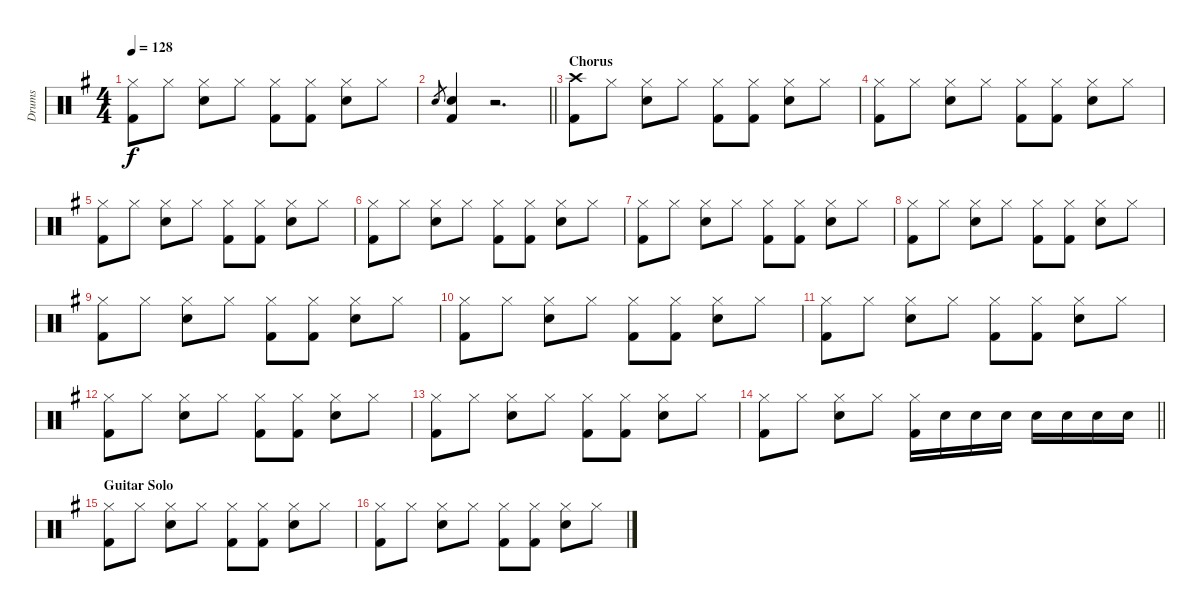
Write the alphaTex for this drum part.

\track ("Drums" "Drums") {instrument percussion}
\staff {score}
\articulation defaults
\ts (4 4)
\tempo 128
\clef neutral
\ks g
("Hi-Hat (closed)" "Kick (hit) 2").8{dy f} "Hi-Hat (closed)".8 ("Hi-Hat (closed)" "Snare (hit) 2").8 "Hi-Hat (closed)".8 ("Hi-Hat (closed)" "Kick (hit) 2").8 ("Hi-Hat (closed)" "Kick (hit) 2").8 ("Hi-Hat (closed)" "Snare (hit) 2").8 "Hi-Hat (closed)".8 |
\barLineRight lightlight "Snare (hit) 2".8{gr}
("Snare (hit) 2" "Kick (hit) 2").4 r.2{d} |
\section ("" "Chorus")
("Crash high (hit)" "Kick (hit) 2").8 "Hi-Hat (closed)".8 ("Hi-Hat (closed)" "Snare (hit) 2").8 "Hi-Hat (closed)".8 ("Hi-Hat (closed)" "Kick (hit) 2").8 ("Hi-Hat (closed)" "Kick (hit) 2").8 ("Hi-Hat (closed)" "Snare (hit) 2").8 "Hi-Hat (closed)".8 |
("Hi-Hat (closed)" "Kick (hit) 2").8 "Hi-Hat (closed)".8 ("Hi-Hat (closed)" "Snare (hit) 2").8 "Hi-Hat (closed)".8 ("Hi-Hat (closed)" "Kick (hit) 2").8 ("Hi-Hat (closed)" "Kick (hit) 2").8 ("Hi-Hat (closed)" "Snare (hit) 2").8 "Hi-Hat (closed)".8 |
("Hi-Hat (closed)" "Kick (hit) 2").8 "Hi-Hat (closed)".8 ("Hi-Hat (closed)" "Snare (hit) 2").8 "Hi-Hat (closed)".8 ("Hi-Hat (closed)" "Kick (hit) 2").8 ("Hi-Hat (closed)" "Kick (hit) 2").8 ("Hi-Hat (closed)" "Snare (hit) 2").8 "Hi-Hat (closed)".8 |
("Hi-Hat (closed)" "Kick (hit) 2").8 "Hi-Hat (closed)".8 ("Hi-Hat (closed)" "Snare (hit) 2").8 "Hi-Hat (closed)".8 ("Hi-Hat (closed)" "Kick (hit) 2").8 ("Hi-Hat (closed)" "Kick (hit) 2").8 ("Hi-Hat (closed)" "Snare (hit) 2").8 "Hi-Hat (closed)".8 |
("Hi-Hat (closed)" "Kick (hit) 2").8 "Hi-Hat (closed)".8 ("Hi-Hat (closed)" "Snare (hit) 2").8 "Hi-Hat (closed)".8 ("Hi-Hat (closed)" "Kick (hit) 2").8 ("Hi-Hat (closed)" "Kick (hit) 2").8 ("Hi-Hat (closed)" "Snare (hit) 2").8 "Hi-Hat (closed)".8 |
("Hi-Hat (closed)" "Kick (hit) 2").8 "Hi-Hat (closed)".8 ("Hi-Hat (closed)" "Snare (hit) 2").8 "Hi-Hat (closed)".8 ("Hi-Hat (closed)" "Kick (hit) 2").8 ("Hi-Hat (closed)" "Kick (hit) 2").8 ("Hi-Hat (closed)" "Snare (hit) 2").8 "Hi-Hat (closed)".8 |
("Hi-Hat (closed)" "Kick (hit) 2").8 "Hi-Hat (closed)".8 ("Hi-Hat (closed)" "Snare (hit) 2").8 "Hi-Hat (closed)".8 ("Hi-Hat (closed)" "Kick (hit) 2").8 ("Hi-Hat (closed)" "Kick (hit) 2").8 ("Hi-Hat (closed)" "Snare (hit) 2").8 "Hi-Hat (closed)".8 |
("Hi-Hat (closed)" "Kick (hit) 2").8 "Hi-Hat (closed)".8 ("Hi-Hat (closed)" "Snare (hit) 2").8 "Hi-Hat (closed)".8 ("Hi-Hat (closed)" "Kick (hit) 2").8 ("Hi-Hat (closed)" "Kick (hit) 2").8 ("Hi-Hat (closed)" "Snare (hit) 2").8 "Hi-Hat (closed)".8 |
("Hi-Hat (closed)" "Kick (hit) 2").8 "Hi-Hat (closed)".8 ("Hi-Hat (closed)" "Snare (hit) 2").8 "Hi-Hat (closed)".8 ("Hi-Hat (closed)" "Kick (hit) 2").8 ("Hi-Hat (closed)" "Kick (hit) 2").8 ("Hi-Hat (closed)" "Snare (hit) 2").8 "Hi-Hat (closed)".8 |
("Hi-Hat (closed)" "Kick (hit) 2").8 "Hi-Hat (closed)".8 ("Hi-Hat (closed)" "Snare (hit) 2").8 "Hi-Hat (closed)".8 ("Hi-Hat (closed)" "Kick (hit) 2").8 ("Hi-Hat (closed)" "Kick (hit) 2").8 ("Hi-Hat (closed)" "Snare (hit) 2").8 "Hi-Hat (closed)".8 |
("Hi-Hat (closed)" "Kick (hit) 2").8 "Hi-Hat (closed)".8 ("Hi-Hat (closed)" "Snare (hit) 2").8 "Hi-Hat (closed)".8 ("Hi-Hat (closed)" "Kick (hit) 2").8 ("Hi-Hat (closed)" "Kick (hit) 2").8 ("Hi-Hat (closed)" "Snare (hit) 2").8 "Hi-Hat (closed)".8 |
\barLineRight lightlight
("Hi-Hat (closed)" "Kick (hit) 2").8 "Hi-Hat (closed)".8 ("Hi-Hat (closed)" "Snare (hit) 2").8 "Hi-Hat (closed)".8 ("Hi-Hat (closed)" "Kick (hit) 2").16 "Snare (hit) 2".16 "Snare (hit) 2".16 "Snare (hit) 2".16 "Snare (hit) 2".16 "Snare (hit) 2".16 "Snare (hit) 2".16 "Snare (hit) 2".16 |
\section ("" "Guitar Solo")
("Hi-Hat (closed)" "Kick (hit) 2").8 "Hi-Hat (closed)".8 ("Hi-Hat (closed)" "Snare (hit) 2").8 "Hi-Hat (closed)".8 ("Hi-Hat (closed)" "Kick (hit) 2").8 ("Hi-Hat (closed)" "Kick (hit) 2").8 ("Hi-Hat (closed)" "Snare (hit) 2").8 "Hi-Hat (closed)".8 |
("Hi-Hat (closed)" "Kick (hit) 2").8 "Hi-Hat (closed)".8 ("Hi-Hat (closed)" "Snare (hit) 2").8 "Hi-Hat (closed)".8 ("Hi-Hat (closed)" "Kick (hit) 2").8 ("Hi-Hat (closed)" "Kick (hit) 2").8 ("Hi-Hat (closed)" "Snare (hit) 2").8 "Hi-Hat (closed)".8
